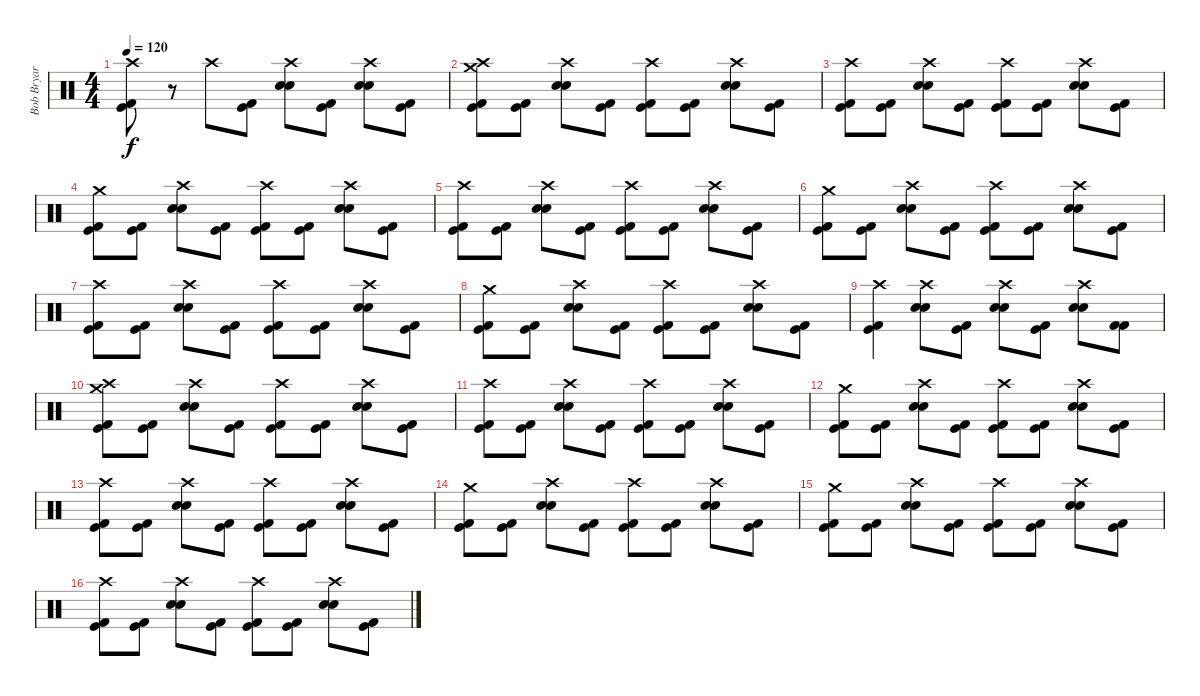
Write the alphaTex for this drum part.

\track ("Bob Bryar" "Bob Bryar") {instrument percussion}
\staff {score}
\articulation defaults
\ts (4 4)
\tempo 120
\clef neutral
\ks c
("Crash high (hit)" "Kick (hit)" "Kick (hit) 2").8{dy f} r.8 "Crash high (hit)".8 ("Kick (hit)" "Kick (hit) 2").8 ("Crash high (hit)" "Electric Snare (hit)" "Snare (hit) 2").8 ("Kick (hit)" "Kick (hit) 2").8 ("Crash high (hit)" "Electric Snare (hit)" "Snare (hit) 2").8 ("Kick (hit)" "Kick (hit) 2").8 |
("Crash medium (hit)" "Crash high (hit)" "Kick (hit)" "Kick (hit) 2").8 ("Kick (hit)" "Kick (hit) 2").8 ("Crash high (hit)" "Electric Snare (hit)" "Snare (hit) 2").8 ("Kick (hit)" "Kick (hit) 2").8 ("Crash high (hit)" "Kick (hit)" "Kick (hit) 2").8 ("Kick (hit)" "Kick (hit) 2").8 ("Crash high (hit)" "Electric Snare (hit)" "Snare (hit) 2").8 ("Kick (hit)" "Kick (hit) 2").8 |
("Crash high (hit)" "Kick (hit)" "Kick (hit) 2").8 ("Kick (hit)" "Kick (hit) 2").8 ("Crash high (hit)" "Electric Snare (hit)" "Snare (hit) 2").8 ("Kick (hit)" "Kick (hit) 2").8 ("Crash high (hit)" "Kick (hit)" "Kick (hit) 2").8 ("Kick (hit)" "Kick (hit) 2").8 ("Crash high (hit)" "Electric Snare (hit)" "Snare (hit) 2").8 ("Kick (hit)" "Kick (hit) 2").8 |
("Crash medium (hit)" "Kick (hit)" "Kick (hit) 2").8 ("Kick (hit)" "Kick (hit) 2").8 ("Crash high (hit)" "Electric Snare (hit)" "Snare (hit) 2").8 ("Kick (hit)" "Kick (hit) 2").8 ("Crash high (hit)" "Kick (hit)" "Kick (hit) 2").8 ("Kick (hit)" "Kick (hit) 2").8 ("Crash high (hit)" "Electric Snare (hit)" "Snare (hit) 2").8 ("Kick (hit)" "Kick (hit) 2").8 |
("Crash high (hit)" "Kick (hit)" "Kick (hit) 2").8 ("Kick (hit)" "Kick (hit) 2").8 ("Crash high (hit)" "Electric Snare (hit)" "Snare (hit) 2").8 ("Kick (hit)" "Kick (hit) 2").8 ("Crash high (hit)" "Kick (hit)" "Kick (hit) 2").8 ("Kick (hit)" "Kick (hit) 2").8 ("Crash high (hit)" "Electric Snare (hit)" "Snare (hit) 2").8 ("Kick (hit)" "Kick (hit) 2").8 |
("Crash medium (hit)" "Kick (hit)" "Kick (hit) 2").8 ("Kick (hit)" "Kick (hit) 2").8 ("Crash high (hit)" "Electric Snare (hit)" "Snare (hit) 2").8 ("Kick (hit)" "Kick (hit) 2").8 ("Crash high (hit)" "Kick (hit)" "Kick (hit) 2").8 ("Kick (hit)" "Kick (hit) 2").8 ("Crash high (hit)" "Electric Snare (hit)" "Snare (hit) 2").8 ("Kick (hit)" "Kick (hit) 2").8 |
("Crash high (hit)" "Kick (hit)" "Kick (hit) 2").8 ("Kick (hit)" "Kick (hit) 2").8 ("Crash high (hit)" "Electric Snare (hit)" "Snare (hit) 2").8 ("Kick (hit)" "Kick (hit) 2").8 ("Crash high (hit)" "Kick (hit)" "Kick (hit) 2").8 ("Kick (hit)" "Kick (hit) 2").8 ("Crash high (hit)" "Electric Snare (hit)" "Snare (hit) 2").8 ("Kick (hit)" "Kick (hit) 2").8 |
("Crash medium (hit)" "Kick (hit)" "Kick (hit) 2").8 ("Kick (hit)" "Kick (hit) 2").8 ("Crash high (hit)" "Electric Snare (hit)" "Snare (hit) 2").8 ("Kick (hit)" "Kick (hit) 2").8 ("Crash high (hit)" "Kick (hit)" "Kick (hit) 2").8 ("Kick (hit)" "Kick (hit) 2").8 ("Crash high (hit)" "Electric Snare (hit)" "Snare (hit) 2").8 ("Kick (hit)" "Kick (hit) 2").8 |
("Crash high (hit)" "Kick (hit)" "Kick (hit) 2").4 ("Crash high (hit)" "Electric Snare (hit)" "Snare (hit) 2").8 ("Kick (hit)" "Kick (hit) 2").8 ("Crash high (hit)" "Electric Snare (hit)" "Snare (hit) 2").8 ("Kick (hit)" "Kick (hit) 2").8 ("Crash high (hit)" "Electric Snare (hit)" "Snare (hit) 2").8 ("Kick (hit) 2" "Kick (hit) 2").8 |
("Crash medium (hit)" "Crash high (hit)" "Kick (hit)" "Kick (hit) 2").8 ("Kick (hit)" "Kick (hit) 2").8 ("Crash high (hit)" "Electric Snare (hit)" "Snare (hit) 2").8 ("Kick (hit)" "Kick (hit) 2").8 ("Crash high (hit)" "Kick (hit)" "Kick (hit) 2").8 ("Kick (hit)" "Kick (hit) 2").8 ("Crash high (hit)" "Electric Snare (hit)" "Snare (hit) 2").8 ("Kick (hit)" "Kick (hit) 2").8 |
("Crash high (hit)" "Kick (hit)" "Kick (hit) 2").8 ("Kick (hit)" "Kick (hit) 2").8 ("Crash high (hit)" "Electric Snare (hit)" "Snare (hit) 2").8 ("Kick (hit)" "Kick (hit) 2").8 ("Crash high (hit)" "Kick (hit)" "Kick (hit) 2").8 ("Kick (hit)" "Kick (hit) 2").8 ("Crash high (hit)" "Electric Snare (hit)" "Snare (hit) 2").8 ("Kick (hit)" "Kick (hit) 2").8 |
("Crash medium (hit)" "Kick (hit)" "Kick (hit) 2").8 ("Kick (hit)" "Kick (hit) 2").8 ("Crash high (hit)" "Electric Snare (hit)" "Snare (hit) 2").8 ("Kick (hit)" "Kick (hit) 2").8 ("Crash high (hit)" "Kick (hit)" "Kick (hit) 2").8 ("Kick (hit)" "Kick (hit) 2").8 ("Crash high (hit)" "Electric Snare (hit)" "Snare (hit) 2").8 ("Kick (hit)" "Kick (hit) 2").8 |
("Crash high (hit)" "Kick (hit)" "Kick (hit) 2").8 ("Kick (hit)" "Kick (hit) 2").8 ("Crash high (hit)" "Electric Snare (hit)" "Snare (hit) 2").8 ("Kick (hit)" "Kick (hit) 2").8 ("Crash high (hit)" "Kick (hit)" "Kick (hit) 2").8 ("Kick (hit)" "Kick (hit) 2").8 ("Crash high (hit)" "Electric Snare (hit)" "Snare (hit) 2").8 ("Kick (hit)" "Kick (hit) 2").8 |
("Crash medium (hit)" "Kick (hit)" "Kick (hit) 2").8 ("Kick (hit)" "Kick (hit) 2").8 ("Crash high (hit)" "Electric Snare (hit)" "Snare (hit) 2").8 ("Kick (hit)" "Kick (hit) 2").8 ("Crash high (hit)" "Kick (hit)" "Kick (hit) 2").8 ("Kick (hit)" "Kick (hit) 2").8 ("Crash high (hit)" "Electric Snare (hit)" "Snare (hit) 2").8 ("Kick (hit)" "Kick (hit) 2").8 |
("Crash medium (hit)" "Kick (hit)" "Kick (hit) 2").8 ("Kick (hit)" "Kick (hit) 2").8 ("Crash high (hit)" "Electric Snare (hit)" "Snare (hit) 2").8 ("Kick (hit)" "Kick (hit) 2").8 ("Crash high (hit)" "Kick (hit)" "Kick (hit) 2").8 ("Kick (hit)" "Kick (hit) 2").8 ("Crash high (hit)" "Electric Snare (hit)" "Snare (hit) 2").8 ("Kick (hit)" "Kick (hit) 2").8 |
("Crash high (hit)" "Kick (hit)" "Kick (hit) 2").8 ("Kick (hit)" "Kick (hit) 2").8 ("Crash high (hit)" "Electric Snare (hit)" "Snare (hit) 2").8 ("Kick (hit)" "Kick (hit) 2").8 ("Crash high (hit)" "Kick (hit)" "Kick (hit) 2").8 ("Kick (hit)" "Kick (hit) 2").8 ("Crash high (hit)" "Electric Snare (hit)" "Snare (hit) 2").8 ("Kick (hit)" "Kick (hit) 2").8
